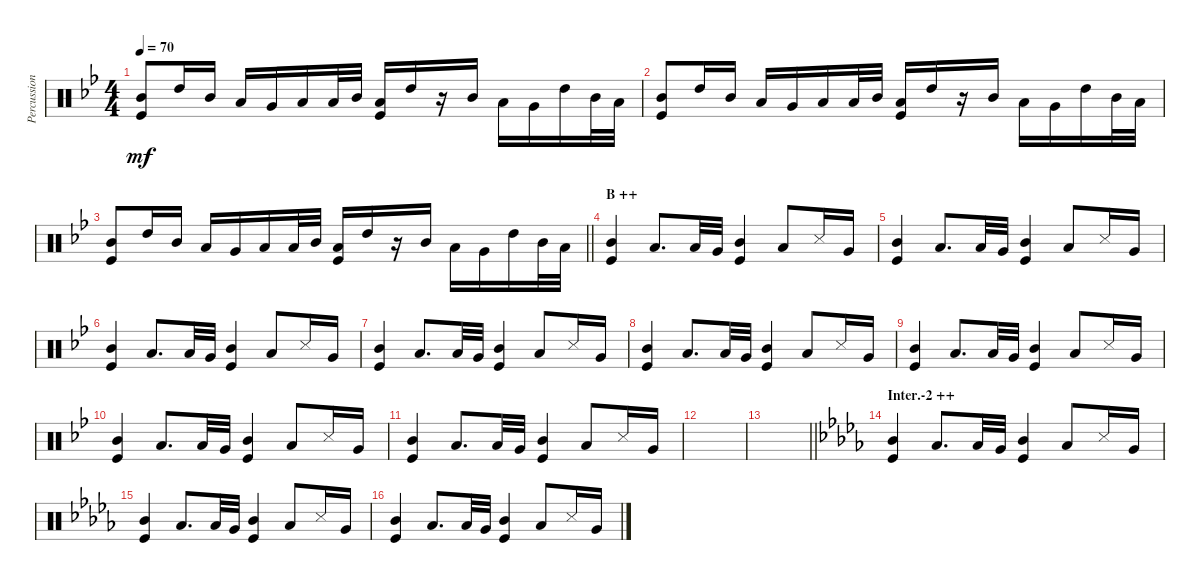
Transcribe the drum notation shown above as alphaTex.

\track ("Percussion (Tainaka Ritsu)" "Percussion") {instrument percussion}
\staff {score}
\articulation defaults
\ts (4 4)
\tempo 70
\clef neutral
\ks bb
("Mid Tom (hit)" "Kick (hit)").8{dy mf} "High Tom (hit)".16 "Mid Tom (hit)".16 "Low Tom (hit)".16 "Very Low Tom (hit)".16 "Low Tom (hit)".16 "Low Tom (hit)".32 "Mid Tom (hit)".32 ("Low Tom (hit)" "Kick (hit)").16 "High Tom (hit)".16 r.16 "Mid Tom (hit)".16 "Low Tom (hit)".16 "Very Low Tom (hit)".16 "High Tom (hit)".16 "Mid Tom (hit)".32 "Low Tom (hit)".32 |
("Mid Tom (hit)" "Kick (hit)").8 "High Tom (hit)".16 "Mid Tom (hit)".16 "Low Tom (hit)".16 "Very Low Tom (hit)".16 "Low Tom (hit)".16 "Low Tom (hit)".32 "Mid Tom (hit)".32 ("Low Tom (hit)" "Kick (hit)").16 "High Tom (hit)".16 r.16 "Mid Tom (hit)".16 "Low Tom (hit)".16 "Very Low Tom (hit)".16 "High Tom (hit)".16 "Mid Tom (hit)".32 "Low Tom (hit)".32 |
\barLineRight lightlight
("Mid Tom (hit)" "Kick (hit)").8 "High Tom (hit)".16 "Mid Tom (hit)".16 "Low Tom (hit)".16 "Very Low Tom (hit)".16 "Low Tom (hit)".16 "Low Tom (hit)".32 "Mid Tom (hit)".32 ("Low Tom (hit)" "Kick (hit)").16 "High Tom (hit)".16 r.16 "Mid Tom (hit)".16 "Low Tom (hit)".16 "Very Low Tom (hit)".16 "High Tom (hit)".16 "Mid Tom (hit)".32 "Low Tom (hit)".32 |
\section ("" "B ++")
("Mid Tom (hit)" "Kick (hit)").4 "Low Tom (hit)".8{d} "Low Floor Tom (hit)".32 "Very Low Tom (hit)".32 ("Mid Tom (hit)" "Kick (hit)").4 "Low Tom (hit)".8 "Snare (side stick) 3".16 "Very Low Tom (hit)".16 |
("Mid Tom (hit)" "Kick (hit)").4 "Low Tom (hit)".8{d} "Low Floor Tom (hit)".32 "Very Low Tom (hit)".32 ("Mid Tom (hit)" "Kick (hit)").4 "Low Tom (hit)".8 "Snare (side stick) 3".16 "Very Low Tom (hit)".16 |
("Mid Tom (hit)" "Kick (hit)").4 "Low Tom (hit)".8{d} "Low Floor Tom (hit)".32 "Very Low Tom (hit)".32 ("Mid Tom (hit)" "Kick (hit)").4 "Low Tom (hit)".8 "Snare (side stick) 3".16 "Very Low Tom (hit)".16 |
("Mid Tom (hit)" "Kick (hit)").4 "Low Tom (hit)".8{d} "Low Floor Tom (hit)".32 "Very Low Tom (hit)".32 ("Mid Tom (hit)" "Kick (hit)").4 "Low Tom (hit)".8 "Snare (side stick) 3".16 "Very Low Tom (hit)".16 |
("Mid Tom (hit)" "Kick (hit)").4 "Low Tom (hit)".8{d} "Low Floor Tom (hit)".32 "Very Low Tom (hit)".32 ("Mid Tom (hit)" "Kick (hit)").4 "Low Tom (hit)".8 "Snare (side stick) 3".16 "Very Low Tom (hit)".16 |
("Mid Tom (hit)" "Kick (hit)").4 "Low Tom (hit)".8{d} "Low Floor Tom (hit)".32 "Very Low Tom (hit)".32 ("Mid Tom (hit)" "Kick (hit)").4 "Low Tom (hit)".8 "Snare (side stick) 3".16 "Very Low Tom (hit)".16 |
("Mid Tom (hit)" "Kick (hit)").4 "Low Tom (hit)".8{d} "Low Floor Tom (hit)".32 "Very Low Tom (hit)".32 ("Mid Tom (hit)" "Kick (hit)").4 "Low Tom (hit)".8 "Snare (side stick) 3".16 "Very Low Tom (hit)".16 |
("Mid Tom (hit)" "Kick (hit)").4 "Low Tom (hit)".8{d} "Low Floor Tom (hit)".32 "Very Low Tom (hit)".32 ("Mid Tom (hit)" "Kick (hit)").4 "Low Tom (hit)".8 "Snare (side stick) 3".16 "Very Low Tom (hit)".16 |
|
\barLineRight lightlight
|
\section ("" "Inter.-2 ++")
\ks db
("Mid Tom (hit)" "Kick (hit)").4 "Low Tom (hit)".8{d} "Low Floor Tom (hit)".32 "Very Low Tom (hit)".32 ("Mid Tom (hit)" "Kick (hit)").4 "Low Tom (hit)".8 "Snare (side stick) 3".16 "Very Low Tom (hit)".16 |
("Mid Tom (hit)" "Kick (hit)").4 "Low Tom (hit)".8{d} "Low Floor Tom (hit)".32 "Very Low Tom (hit)".32 ("Mid Tom (hit)" "Kick (hit)").4 "Low Tom (hit)".8 "Snare (side stick) 3".16 "Very Low Tom (hit)".16 |
("Mid Tom (hit)" "Kick (hit)").4 "Low Tom (hit)".8{d} "Low Floor Tom (hit)".32 "Very Low Tom (hit)".32 ("Mid Tom (hit)" "Kick (hit)").4 "Low Tom (hit)".8 "Snare (side stick) 3".16 "Very Low Tom (hit)".16
